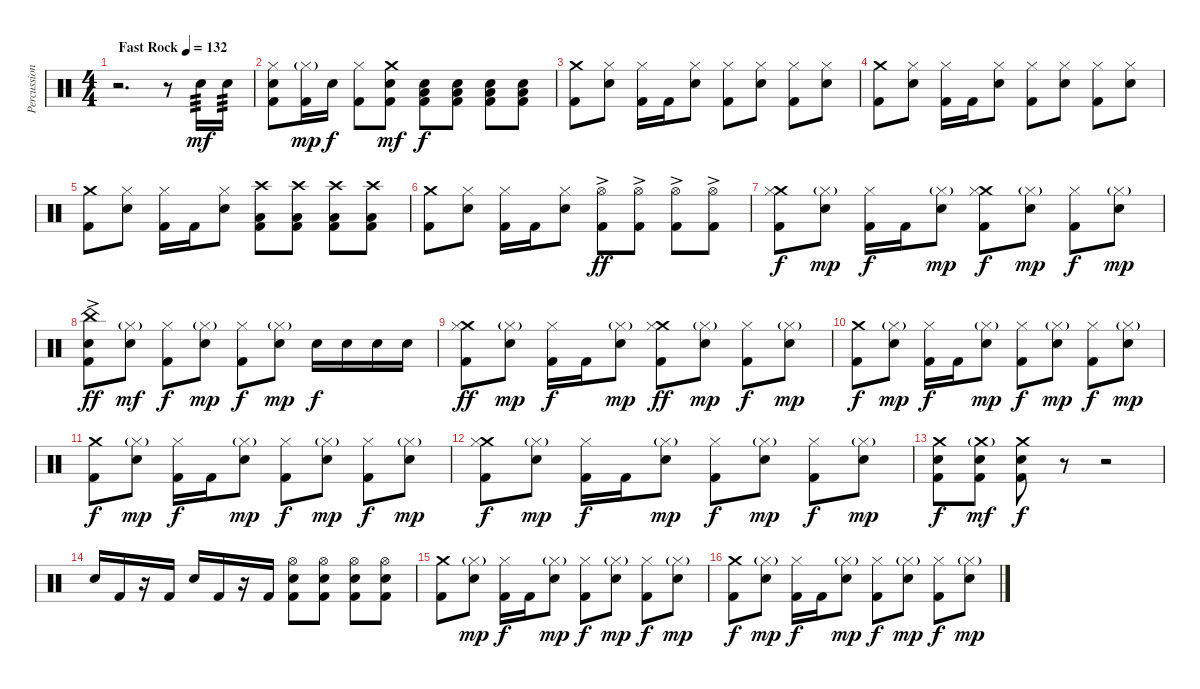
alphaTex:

\track ("Percussion" "Percussion") {instrument percussion}
\staff {score}
\articulation defaults
\ts (4 4)
\tempo (132 "Fast Rock")
\clef neutral
\ks c
r.2{d dy mf} r.8 "Electric Snare (hit)".16{tp 3} "Electric Snare (hit)".16{tp 3} |
("Hi-Hat (closed)" "Kick (hit) 2" "Electric Snare (hit)").8 ("Hi-Hat (closed)"{g} "Kick (hit) 2").16{dy mp} "Electric Snare (hit)".16{dy f} ("Hi-Hat (closed)" "Kick (hit) 2").8 ("Crash medium (hit)" "Kick (hit) 2" "Electric Snare (hit)").8{dy mf} ("Low Floor Tom (hit)" "Electric Snare (hit)" "Kick (hit) 2").8{dy f} ("Low Floor Tom (hit)" "Electric Snare (hit)" "Kick (hit) 2").8 ("Low Floor Tom (hit)" "Electric Snare (hit)" "Kick (hit) 2").8 ("Low Floor Tom (hit)" "Electric Snare (hit)" "Kick (hit) 2").8 |
("Crash medium (hit)" "Kick (hit) 2").8 ("Hi-Hat (closed)" "Electric Snare (hit)").8 ("Hi-Hat (closed)" "Kick (hit) 2").16 "Kick (hit) 2".16 ("Hi-Hat (closed)" "Electric Snare (hit)").8 ("Hi-Hat (closed)" "Kick (hit) 2").8 ("Hi-Hat (closed)" "Electric Snare (hit)").8 ("Hi-Hat (closed)" "Kick (hit) 2").8 ("Hi-Hat (closed)" "Electric Snare (hit)").8 |
("Crash medium (hit)" "Kick (hit) 2").8 ("Hi-Hat (closed)" "Electric Snare (hit)").8 ("Hi-Hat (closed)" "Kick (hit) 2").16 "Kick (hit) 2".16 ("Hi-Hat (closed)" "Electric Snare (hit)").8 ("Hi-Hat (closed)" "Kick (hit) 2").8 ("Hi-Hat (closed)" "Electric Snare (hit)").8 ("Hi-Hat (closed)" "Kick (hit) 2").8 ("Hi-Hat (closed)" "Electric Snare (hit)").8 |
("Crash medium (hit)" "Kick (hit) 2").8 ("Hi-Hat (closed)" "Electric Snare (hit)").8 ("Hi-Hat (closed)" "Kick (hit) 2").16 "Kick (hit) 2".16 ("Hi-Hat (closed)" "Electric Snare (hit)").8 ("Crash high (hit)" "Kick (hit) 2" "Low Floor Tom (hit)").8 ("Crash high (hit)" "Kick (hit) 2" "Low Floor Tom (hit)").8 ("Crash high (hit)" "Kick (hit) 2" "Low Floor Tom (hit)").8 ("Crash high (hit)" "Kick (hit) 2" "Low Floor Tom (hit)").8 |
("Crash medium (hit)" "Kick (hit) 2").8 ("Hi-Hat (closed)" "Electric Snare (hit)").8 ("Hi-Hat (closed)" "Kick (hit) 2").16 "Kick (hit) 2".16 ("Hi-Hat (closed)" "Electric Snare (hit)").8 ("Hi-Hat (open)"{ac} "Kick (hit) 2"{ac}).8{dy ff} ("Hi-Hat (open)"{ac} "Kick (hit) 2"{ac}).8 ("Hi-Hat (open)"{ac} "Kick (hit) 2"{ac}).8 ("Hi-Hat (open)"{ac} "Kick (hit) 2"{ac}).8 |
("Crash medium (hit)" "Kick (hit) 2" "Hi-Hat (closed)").8{dy f} ("Hi-Hat (closed)"{g} "Electric Snare (hit)").8{dy mp} ("Hi-Hat (closed)" "Kick (hit) 2").16{dy f} "Kick (hit) 2".16 ("Hi-Hat (closed)"{g} "Electric Snare (hit)").8{dy mp} ("Crash medium (hit)" "Kick (hit) 2" "Hi-Hat (closed)").8{dy f} ("Hi-Hat (closed)"{g} "Electric Snare (hit)").8{dy mp} ("Hi-Hat (closed)" "Kick (hit) 2").8{dy f} ("Hi-Hat (closed)"{g} "Electric Snare (hit)").8{dy mp} |
("China (hit)"{ac} "Kick (hit) 2" "Electric Snare (hit)"{ac}).8{dy ff} ("Hi-Hat (closed)"{g} "Electric Snare (hit)").8{dy mf} ("Hi-Hat (closed)" "Kick (hit) 2").8{dy f} ("Hi-Hat (closed)"{g} "Electric Snare (hit)").8{dy mp} ("Hi-Hat (closed)" "Kick (hit) 2").8{dy f} ("Hi-Hat (closed)"{g} "Electric Snare (hit)").8{dy mp} "Electric Snare (hit)".16{dy f} "Electric Snare (hit)".16 "Electric Snare (hit)".16 "Electric Snare (hit)".16 |
("Crash medium (hit)" "Kick (hit) 2" "Hi-Hat (closed)").8{dy ff} ("Hi-Hat (closed)"{g} "Electric Snare (hit)").8{dy mp} ("Hi-Hat (closed)" "Kick (hit) 2").16{dy f} "Kick (hit) 2".16 ("Hi-Hat (closed)"{g} "Electric Snare (hit)").8{dy mp} ("Crash medium (hit)" "Kick (hit) 2" "Hi-Hat (closed)").8{dy ff} ("Hi-Hat (closed)"{g} "Electric Snare (hit)").8{dy mp} ("Hi-Hat (closed)" "Kick (hit) 2").8{dy f} ("Hi-Hat (closed)"{g} "Electric Snare (hit)").8{dy mp} |
("Crash medium (hit)" "Kick (hit) 2").8{dy f} ("Hi-Hat (closed)"{g} "Electric Snare (hit)").8{dy mp} ("Hi-Hat (closed)" "Kick (hit) 2").16{dy f} "Kick (hit) 2".16 ("Hi-Hat (closed)"{g} "Electric Snare (hit)").8{dy mp} ("Hi-Hat (closed)" "Kick (hit) 2").8{dy f} ("Hi-Hat (closed)"{g} "Electric Snare (hit)").8{dy mp} ("Hi-Hat (closed)" "Kick (hit) 2").8{dy f} ("Hi-Hat (closed)"{g} "Electric Snare (hit)").8{dy mp} |
("Crash medium (hit)" "Kick (hit) 2").8{dy f} ("Hi-Hat (closed)"{g} "Electric Snare (hit)").8{dy mp} ("Hi-Hat (closed)" "Kick (hit) 2").16{dy f} "Kick (hit) 2".16 ("Hi-Hat (closed)"{g} "Electric Snare (hit)").8{dy mp} ("Hi-Hat (closed)" "Kick (hit) 2").8{dy f} ("Hi-Hat (closed)"{g} "Electric Snare (hit)").8{dy mp} ("Hi-Hat (closed)" "Kick (hit) 2").8{dy f} ("Hi-Hat (closed)"{g} "Electric Snare (hit)").8{dy mp} |
("Crash medium (hit)" "Kick (hit) 2" "Hi-Hat (closed)").8{dy f} ("Hi-Hat (closed)"{g} "Electric Snare (hit)").8{dy mp} ("Hi-Hat (closed)" "Kick (hit) 2").16{dy f} "Kick (hit) 2".16 ("Hi-Hat (closed)"{g} "Electric Snare (hit)").8{dy mp} ("Hi-Hat (closed)" "Kick (hit) 2").8{dy f} ("Hi-Hat (closed)"{g} "Electric Snare (hit)").8{dy mp} ("Hi-Hat (closed)" "Kick (hit) 2").8{dy f} ("Hi-Hat (closed)"{g} "Electric Snare (hit)").8{dy mp} |
("Crash medium (hit)" "Electric Snare (hit)" "Kick (hit) 2").8{dy f} ("Crash medium (hit)"{g} "Electric Snare (hit)" "Kick (hit) 2").8{dy mf} ("Crash medium (hit)" "Electric Snare (hit)" "Kick (hit) 2").8{dy f} r.8 r.2 |
"Electric Snare (hit)".16 "Kick (hit) 2".16 r.16 "Kick (hit) 2".16 "Electric Snare (hit)".16 "Kick (hit) 2".16 r.16 "Kick (hit) 2".16 ("Hi-Hat (open)" "Kick (hit) 2" "Electric Snare (hit)").8 ("Hi-Hat (open)" "Kick (hit) 2" "Electric Snare (hit)").8 ("Hi-Hat (open)" "Kick (hit) 2" "Electric Snare (hit)").8 ("Hi-Hat (open)" "Kick (hit) 2" "Electric Snare (hit)").8 |
("Crash medium (hit)" "Kick (hit) 2").8 ("Hi-Hat (closed)"{g} "Electric Snare (hit)").8{dy mp} ("Hi-Hat (closed)" "Kick (hit) 2").16{dy f} "Kick (hit) 2".16 ("Hi-Hat (closed)"{g} "Electric Snare (hit)").8{dy mp} ("Hi-Hat (closed)" "Kick (hit) 2").8{dy f} ("Hi-Hat (closed)"{g} "Electric Snare (hit)").8{dy mp} ("Hi-Hat (closed)" "Kick (hit) 2").8{dy f} ("Hi-Hat (closed)"{g} "Electric Snare (hit)").8{dy mp} |
("Crash medium (hit)" "Kick (hit) 2").8{dy f} ("Hi-Hat (closed)"{g} "Electric Snare (hit)").8{dy mp} ("Hi-Hat (closed)" "Kick (hit) 2").16{dy f} "Kick (hit) 2".16 ("Hi-Hat (closed)"{g} "Electric Snare (hit)").8{dy mp} ("Hi-Hat (closed)" "Kick (hit) 2").8{dy f} ("Hi-Hat (closed)"{g} "Electric Snare (hit)").8{dy mp} ("Hi-Hat (closed)" "Kick (hit) 2").8{dy f} ("Hi-Hat (closed)"{g} "Electric Snare (hit)").8{dy mp}
